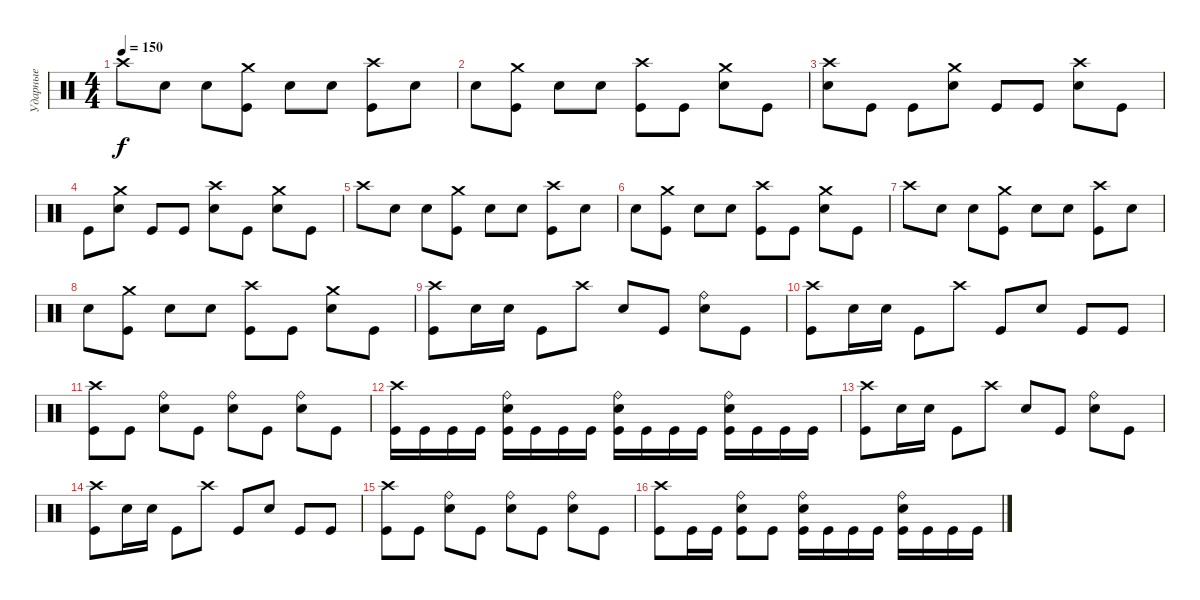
\track ("Ударные" "Ударные") {instrument percussion}
\staff {score}
\articulation defaults
\ts (4 4)
\tempo 150
\clef neutral
\ks c "Crash high (hit)".8{dy f} "Electric Snare (hit)".8 "Electric Snare (hit)".8
("Kick (hit)" "Crash medium (hit)").8 "Electric Snare (hit)".8 "Electric Snare (hit)".8 ("Kick (hit)" "Crash high (hit)").8 "Electric Snare (hit)".8 |
"Electric Snare (hit)".8 ("Kick (hit)" "Crash medium (hit)").8 "Electric Snare (hit)".8 "Electric Snare (hit)".8 ("Kick (hit)" "Crash high (hit)").8 "Kick (hit)".8 ("Electric Snare (hit)" "Crash medium (hit)").8 "Kick (hit)".8 |
("Crash high (hit)" "Electric Snare (hit)").8 "Kick (hit)".8 "Kick (hit)".8 ("Electric Snare (hit)" "Crash medium (hit)").8 "Kick (hit)".8 "Kick (hit)".8 ("Electric Snare (hit)" "Crash high (hit)").8 "Kick (hit)".8 |
"Kick (hit)".8 ("Electric Snare (hit)" "Crash medium (hit)").8 "Kick (hit)".8 "Kick (hit)".8 ("Electric Snare (hit)" "Crash high (hit)").8 "Kick (hit)".8 ("Electric Snare (hit)" "Crash medium (hit)").8 "Kick (hit)".8 |
"Crash high (hit)".8 "Electric Snare (hit)".8 "Electric Snare (hit)".8 ("Kick (hit)" "Crash medium (hit)").8 "Electric Snare (hit)".8 "Electric Snare (hit)".8 ("Kick (hit)" "Crash high (hit)").8 "Electric Snare (hit)".8 |
"Electric Snare (hit)".8 ("Kick (hit)" "Crash medium (hit)").8 "Electric Snare (hit)".8 "Electric Snare (hit)".8 ("Kick (hit)" "Crash high (hit)").8 "Kick (hit)".8 ("Electric Snare (hit)" "Crash medium (hit)").8 "Kick (hit)".8 |
"Crash high (hit)".8 "Electric Snare (hit)".8 "Electric Snare (hit)".8 ("Kick (hit)" "Crash medium (hit)").8 "Electric Snare (hit)".8 "Electric Snare (hit)".8 ("Kick (hit)" "Crash high (hit)").8 "Electric Snare (hit)".8 |
"Electric Snare (hit)".8 ("Kick (hit)" "Crash medium (hit)").8 "Electric Snare (hit)".8 "Electric Snare (hit)".8 ("Kick (hit)" "Crash high (hit)").8 "Kick (hit)".8 ("Electric Snare (hit)" "Crash medium (hit)").8 "Kick (hit)".8 |
("Crash high (hit)" "Kick (hit)").8 "Electric Snare (hit)".16 "Electric Snare (hit)".16 "Kick (hit)".8 "Crash high (hit)".8 "Electric Snare (hit)".8 "Kick (hit)".8 ("Ride (bell)" "Electric Snare (hit)").8 "Kick (hit)".8 |
("Crash high (hit)" "Kick (hit)").8 "Electric Snare (hit)".16 "Electric Snare (hit)".16 "Kick (hit)".8 "Crash high (hit)".8 "Kick (hit)".8 "Electric Snare (hit)".8 "Kick (hit)".8 "Kick (hit)".8 |
("Crash high (hit)" "Kick (hit)").8 "Kick (hit)".8 ("Ride (bell)" "Electric Snare (hit)").8 "Kick (hit)".8 ("Ride (bell)" "Electric Snare (hit)").8 "Kick (hit)".8 ("Ride (bell)" "Electric Snare (hit)").8 "Kick (hit)".8 |
("Crash high (hit)" "Kick (hit)").16 "Kick (hit)".16 "Kick (hit)".16 "Kick (hit)".16 ("Ride (bell)" "Electric Snare (hit)" "Kick (hit)").16 "Kick (hit)".16 "Kick (hit)".16 "Kick (hit)".16 ("Ride (bell)" "Electric Snare (hit)" "Kick (hit)").16 "Kick (hit)".16 "Kick (hit)".16 "Kick (hit)".16 ("Ride (bell)" "Electric Snare (hit)" "Kick (hit)").16 "Kick (hit)".16 "Kick (hit)".16 "Kick (hit)".16 |
("Crash high (hit)" "Kick (hit)").8 "Electric Snare (hit)".16 "Electric Snare (hit)".16 "Kick (hit)".8 "Crash high (hit)".8 "Electric Snare (hit)".8 "Kick (hit)".8 ("Ride (bell)" "Electric Snare (hit)").8 "Kick (hit)".8 |
("Crash high (hit)" "Kick (hit)").8 "Electric Snare (hit)".16 "Electric Snare (hit)".16 "Kick (hit)".8 "Crash high (hit)".8 "Kick (hit)".8 "Electric Snare (hit)".8 "Kick (hit)".8 "Kick (hit)".8 |
("Crash high (hit)" "Kick (hit)").8 "Kick (hit)".8 ("Ride (bell)" "Electric Snare (hit)").8 "Kick (hit)".8 ("Ride (bell)" "Electric Snare (hit)").8 "Kick (hit)".8 ("Ride (bell)" "Electric Snare (hit)").8 "Kick (hit)".8 |
("Crash high (hit)" "Kick (hit)").8 "Kick (hit)".16 "Kick (hit)".16 ("Ride (bell)" "Electric Snare (hit)" "Kick (hit)").8 "Kick (hit)".8 ("Ride (bell)" "Electric Snare (hit)" "Kick (hit)").16 "Kick (hit)".16 "Kick (hit)".16 "Kick (hit)".16 ("Ride (bell)" "Electric Snare (hit)" "Kick (hit)").16 "Kick (hit)".16 "Kick (hit)".16 "Kick (hit)".16
